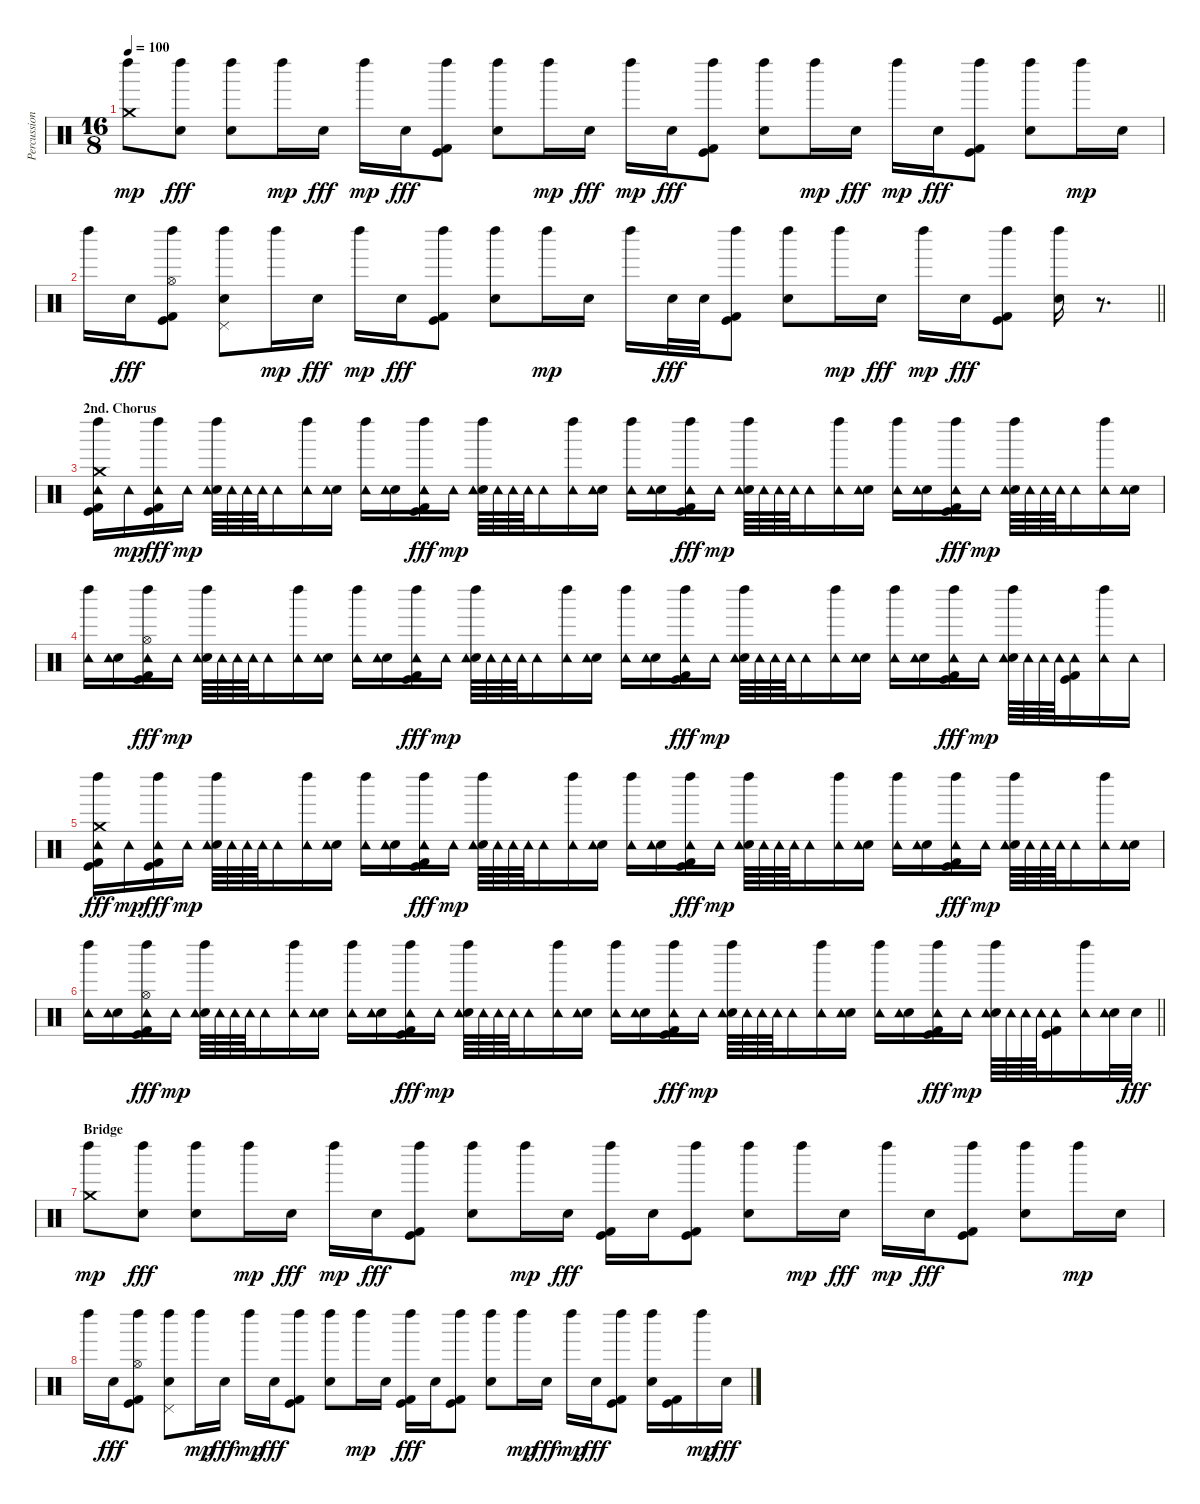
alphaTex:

\track ("Percussion" "Percussion") {instrument percussion}
\staff {score}
\articulation defaults
\ts (16 8)
\tempo 100
\clef neutral
\ks c
("Crash medium (hit)" "Left Maraca (hit)").8{dy mp} ("Left Maraca (hit)" "Snare (hit) 2").8{dy fff} ("Left Maraca (hit)" "Snare (hit) 2").8 "Left Maraca (hit)".16{dy mp} "Snare (hit) 2".16{dy fff} "Left Maraca (hit)".16{dy mp} "Snare (hit) 2".16{dy fff} ("Left Maraca (hit)" "Kick (hit)" "Kick (hit) 2").8 ("Left Maraca (hit)" "Snare (hit) 2").8 "Left Maraca (hit)".16{dy mp} "Snare (hit) 2".16{dy fff} "Left Maraca (hit)".16{dy mp} "Snare (hit) 2".16{dy fff} ("Left Maraca (hit)" "Kick (hit)" "Kick (hit) 2").8 ("Left Maraca (hit)" "Snare (hit) 2").8 "Left Maraca (hit)".16{dy mp} "Snare (hit) 2".16{dy fff} "Left Maraca (hit)".16{dy mp} "Snare (hit) 2".16{dy fff} ("Left Maraca (hit)" "Kick (hit)" "Kick (hit) 2").8 ("Left Maraca (hit)" "Snare (hit) 2").8 "Left Maraca (hit)".16{dy mp} "Snare (hit) 2".16 |
\barLineRight lightlight "Left Maraca (hit)".16 "Snare (hit) 2".16{dy fff}
("Hi-Hat (open)" "Left Maraca (hit)" "Kick (hit)" "Kick (hit) 2").8 ("Pedal Hi-Hat (hit)" "Left Maraca (hit)" "Snare (hit) 2").8 "Left Maraca (hit)".16{dy mp} "Snare (hit) 2".16{dy fff} "Left Maraca (hit)".16{dy mp} "Snare (hit) 2".16{dy fff} ("Left Maraca (hit)" "Kick (hit)" "Kick (hit) 2").8 ("Left Maraca (hit)" "Snare (hit) 2").8 "Left Maraca (hit)".16{dy mp} "Snare (hit) 2".16 "Left Maraca (hit)".16 "Snare (hit) 2".32{dy fff} "Snare (hit) 2".32 ("Left Maraca (hit)" "Kick (hit)" "Kick (hit) 2").8 ("Left Maraca (hit)" "Snare (hit) 2").8 "Left Maraca (hit)".16{dy mp} "Snare (hit) 2".16{dy fff} "Left Maraca (hit)".16{dy mp} "Snare (hit) 2".16{dy fff} ("Left Maraca (hit)" "Kick (hit)" "Kick (hit) 2").8 ("Left Maraca (hit)" "Snare (hit) 2").16 r.8{d} |
\section ("" "2nd. Chorus")
("Crash medium (hit)" "Left Maraca (hit)" "Tambourine (hit)" "Kick (hit)" "Kick (hit) 2").16 "Tambourine (hit)".16{dy mp} ("Left Maraca (hit)" "Tambourine (hit)" "Kick (hit)" "Kick (hit) 2").16{dy fff} "Tambourine (hit)".16{dy mp} ("Left Maraca (hit)" "Snare (hit) 2" "Tambourine (hit)").64 "Tambourine (hit)".64 "Tambourine (hit)".64 "Tambourine (hit)".64 "Tambourine (hit)".16 ("Left Maraca (hit)" "Tambourine (hit)").16 ("Snare (hit) 2" "Tambourine (hit)").16 ("Left Maraca (hit)" "Tambourine (hit)").16 ("Snare (hit) 2" "Tambourine (hit)").16 ("Left Maraca (hit)" "Tambourine (hit)" "Kick (hit)" "Kick (hit) 2").16{dy fff} "Tambourine (hit)".16{dy mp} ("Left Maraca (hit)" "Snare (hit) 2" "Tambourine (hit)").64 "Tambourine (hit)".64 "Tambourine (hit)".64 "Tambourine (hit)".64 "Tambourine (hit)".16 ("Left Maraca (hit)" "Tambourine (hit)").16 ("Snare (hit) 2" "Tambourine (hit)").16 ("Left Maraca (hit)" "Tambourine (hit)").16 ("Snare (hit) 2" "Tambourine (hit)").16 ("Left Maraca (hit)" "Tambourine (hit)" "Kick (hit)" "Kick (hit) 2").16{dy fff} "Tambourine (hit)".16{dy mp} ("Left Maraca (hit)" "Snare (hit) 2" "Tambourine (hit)").64 "Tambourine (hit)".64 "Tambourine (hit)".64 "Tambourine (hit)".64 "Tambourine (hit)".16 ("Left Maraca (hit)" "Tambourine (hit)").16 ("Snare (hit) 2" "Tambourine (hit)").16 ("Left Maraca (hit)" "Tambourine (hit)").16 ("Snare (hit) 2" "Tambourine (hit)").16 ("Left Maraca (hit)" "Tambourine (hit)" "Kick (hit)" "Kick (hit) 2").16{dy fff} "Tambourine (hit)".16{dy mp} ("Left Maraca (hit)" "Snare (hit) 2" "Tambourine (hit)").64 "Tambourine (hit)".64 "Tambourine (hit)".64 "Tambourine (hit)".64 "Tambourine (hit)".16 ("Left Maraca (hit)" "Tambourine (hit)").16 ("Snare (hit) 2" "Tambourine (hit)").16 |
("Left Maraca (hit)" "Tambourine (hit)").16 ("Snare (hit) 2" "Tambourine (hit)").16 ("Hi-Hat (open)" "Left Maraca (hit)" "Tambourine (hit)" "Kick (hit)" "Kick (hit) 2").16{dy fff} "Tambourine (hit)".16{dy mp} ("Left Maraca (hit)" "Snare (hit) 2" "Tambourine (hit)").64 "Tambourine (hit)".64 "Tambourine (hit)".64 "Tambourine (hit)".64 "Tambourine (hit)".16 ("Left Maraca (hit)" "Tambourine (hit)").16 ("Snare (hit) 2" "Tambourine (hit)").16 ("Left Maraca (hit)" "Tambourine (hit)").16 ("Snare (hit) 2" "Tambourine (hit)").16 ("Left Maraca (hit)" "Tambourine (hit)" "Kick (hit)" "Kick (hit) 2").16{dy fff} "Tambourine (hit)".16{dy mp} ("Left Maraca (hit)" "Snare (hit) 2" "Tambourine (hit)").64 "Tambourine (hit)".64 "Tambourine (hit)".64 "Tambourine (hit)".64 "Tambourine (hit)".16 ("Left Maraca (hit)" "Tambourine (hit)").16 ("Snare (hit) 2" "Tambourine (hit)").16 ("Left Maraca (hit)" "Tambourine (hit)").16 ("Snare (hit) 2" "Tambourine (hit)").16 ("Left Maraca (hit)" "Tambourine (hit)" "Kick (hit)" "Kick (hit) 2").16{dy fff} "Tambourine (hit)".16{dy mp} ("Left Maraca (hit)" "Snare (hit) 2" "Tambourine (hit)").64 "Tambourine (hit)".64 "Tambourine (hit)".64 "Tambourine (hit)".64 "Tambourine (hit)".16 ("Left Maraca (hit)" "Tambourine (hit)").16 ("Snare (hit) 2" "Tambourine (hit)").16 ("Left Maraca (hit)" "Tambourine (hit)").16 ("Snare (hit) 2" "Tambourine (hit)").16 ("Left Maraca (hit)" "Tambourine (hit)" "Kick (hit)" "Kick (hit) 2").16{dy fff} "Tambourine (hit)".16{dy mp} ("Left Maraca (hit)" "Snare (hit) 2" "Tambourine (hit)").64 "Tambourine (hit)".64 "Tambourine (hit)".64 "Tambourine (hit)".64 ("Tambourine (hit)" "Kick (hit)" "Kick (hit) 2").16 ("Left Maraca (hit)" "Tambourine (hit)").16 "Tambourine (hit)".16 |
("Crash medium (hit)" "Left Maraca (hit)" "Tambourine (hit)" "Kick (hit)" "Kick (hit) 2").16{dy fff} "Tambourine (hit)".16{dy mp} ("Left Maraca (hit)" "Tambourine (hit)" "Kick (hit)" "Kick (hit) 2").16{dy fff} "Tambourine (hit)".16{dy mp} ("Left Maraca (hit)" "Snare (hit) 2" "Tambourine (hit)").64 "Tambourine (hit)".64 "Tambourine (hit)".64 "Tambourine (hit)".64 "Tambourine (hit)".16 ("Left Maraca (hit)" "Tambourine (hit)").16 ("Snare (hit) 2" "Tambourine (hit)").16 ("Left Maraca (hit)" "Tambourine (hit)").16 ("Snare (hit) 2" "Tambourine (hit)").16 ("Left Maraca (hit)" "Tambourine (hit)" "Kick (hit)" "Kick (hit) 2").16{dy fff} "Tambourine (hit)".16{dy mp} ("Left Maraca (hit)" "Snare (hit) 2" "Tambourine (hit)").64 "Tambourine (hit)".64 "Tambourine (hit)".64 "Tambourine (hit)".64 "Tambourine (hit)".16 ("Left Maraca (hit)" "Tambourine (hit)").16 ("Snare (hit) 2" "Tambourine (hit)").16 ("Left Maraca (hit)" "Tambourine (hit)").16 ("Snare (hit) 2" "Tambourine (hit)").16 ("Left Maraca (hit)" "Tambourine (hit)" "Kick (hit)" "Kick (hit) 2").16{dy fff} "Tambourine (hit)".16{dy mp} ("Left Maraca (hit)" "Snare (hit) 2" "Tambourine (hit)").64 "Tambourine (hit)".64 "Tambourine (hit)".64 "Tambourine (hit)".64 "Tambourine (hit)".16 ("Left Maraca (hit)" "Tambourine (hit)").16 ("Snare (hit) 2" "Tambourine (hit)").16 ("Left Maraca (hit)" "Tambourine (hit)").16 ("Snare (hit) 2" "Tambourine (hit)").16 ("Left Maraca (hit)" "Tambourine (hit)" "Kick (hit)" "Kick (hit) 2").16{dy fff} "Tambourine (hit)".16{dy mp} ("Left Maraca (hit)" "Snare (hit) 2" "Tambourine (hit)").64 "Tambourine (hit)".64 "Tambourine (hit)".64 "Tambourine (hit)".64 "Tambourine (hit)".16 ("Left Maraca (hit)" "Tambourine (hit)").16 ("Snare (hit) 2" "Tambourine (hit)").16 |
\barLineRight lightlight
("Left Maraca (hit)" "Tambourine (hit)").16 ("Snare (hit) 2" "Tambourine (hit)").16 ("Hi-Hat (open)" "Left Maraca (hit)" "Tambourine (hit)" "Kick (hit)" "Kick (hit) 2").16{dy fff} "Tambourine (hit)".16{dy mp} ("Left Maraca (hit)" "Snare (hit) 2" "Tambourine (hit)").64 "Tambourine (hit)".64 "Tambourine (hit)".64 "Tambourine (hit)".64 "Tambourine (hit)".16 ("Left Maraca (hit)" "Tambourine (hit)").16 ("Snare (hit) 2" "Tambourine (hit)").16 ("Left Maraca (hit)" "Tambourine (hit)").16 ("Snare (hit) 2" "Tambourine (hit)").16 ("Left Maraca (hit)" "Tambourine (hit)" "Kick (hit)" "Kick (hit) 2").16{dy fff} "Tambourine (hit)".16{dy mp} ("Left Maraca (hit)" "Snare (hit) 2" "Tambourine (hit)").64 "Tambourine (hit)".64 "Tambourine (hit)".64 "Tambourine (hit)".64 "Tambourine (hit)".16 ("Left Maraca (hit)" "Tambourine (hit)").16 ("Snare (hit) 2" "Tambourine (hit)").16 ("Left Maraca (hit)" "Tambourine (hit)").16 ("Snare (hit) 2" "Tambourine (hit)").16 ("Left Maraca (hit)" "Tambourine (hit)" "Kick (hit)" "Kick (hit) 2").16{dy fff} "Tambourine (hit)".16{dy mp} ("Left Maraca (hit)" "Snare (hit) 2" "Tambourine (hit)").64 "Tambourine (hit)".64 "Tambourine (hit)".64 "Tambourine (hit)".64 "Tambourine (hit)".16 ("Left Maraca (hit)" "Tambourine (hit)").16 ("Snare (hit) 2" "Tambourine (hit)").16 ("Left Maraca (hit)" "Tambourine (hit)").16 ("Snare (hit) 2" "Tambourine (hit)").16 ("Left Maraca (hit)" "Tambourine (hit)" "Kick (hit)" "Kick (hit) 2").16{dy fff} "Tambourine (hit)".16{dy mp} ("Left Maraca (hit)" "Snare (hit) 2" "Tambourine (hit)").64 "Tambourine (hit)".64 "Tambourine (hit)".64 "Tambourine (hit)".64 ("Tambourine (hit)" "Kick (hit)" "Kick (hit) 2").16 ("Left Maraca (hit)" "Tambourine (hit)").16 ("Snare (hit) 2" "Tambourine (hit)").32 "Snare (hit) 2".32{dy fff} |
\section ("" "Bridge")
("Crash medium (hit)" "Left Maraca (hit)").8{dy mp} ("Left Maraca (hit)" "Snare (hit) 2").8{dy fff} ("Left Maraca (hit)" "Snare (hit) 2").8 "Left Maraca (hit)".16{dy mp} "Snare (hit) 2".16{dy fff} "Left Maraca (hit)".16{dy mp} "Snare (hit) 2".16{dy fff} ("Left Maraca (hit)" "Kick (hit)" "Kick (hit) 2").8 ("Left Maraca (hit)" "Snare (hit) 2").8 "Left Maraca (hit)".16{dy mp} "Snare (hit) 2".16{dy fff} ("Left Maraca (hit)" "Kick (hit)" "Kick (hit) 2").16 "Snare (hit) 2".16 ("Left Maraca (hit)" "Kick (hit)" "Kick (hit) 2").8 ("Left Maraca (hit)" "Snare (hit) 2").8 "Left Maraca (hit)".16{dy mp} "Snare (hit) 2".16{dy fff} "Left Maraca (hit)".16{dy mp} "Snare (hit) 2".16{dy fff} ("Left Maraca (hit)" "Kick (hit)" "Kick (hit) 2").8 ("Left Maraca (hit)" "Snare (hit) 2").8 "Left Maraca (hit)".16{dy mp} "Snare (hit) 2".16 |
"Left Maraca (hit)".16 "Snare (hit) 2".16{dy fff} ("Hi-Hat (open)" "Left Maraca (hit)" "Kick (hit)" "Kick (hit) 2").8 ("Pedal Hi-Hat (hit)" "Left Maraca (hit)" "Snare (hit) 2").8 "Left Maraca (hit)".16{dy mp} "Snare (hit) 2".16{dy fff} "Left Maraca (hit)".16{dy mp} "Snare (hit) 2".16{dy fff} ("Left Maraca (hit)" "Kick (hit)" "Kick (hit) 2").8 ("Left Maraca (hit)" "Snare (hit) 2").8 "Left Maraca (hit)".16{dy mp} "Snare (hit) 2".16 ("Left Maraca (hit)" "Kick (hit)" "Kick (hit) 2").16{dy fff} "Snare (hit) 2".16 ("Left Maraca (hit)" "Kick (hit)" "Kick (hit) 2").8 ("Left Maraca (hit)" "Snare (hit) 2").8 "Left Maraca (hit)".16{dy mp} "Snare (hit) 2".16{dy fff} "Left Maraca (hit)".16{dy mp} "Snare (hit) 2".16{dy fff} ("Left Maraca (hit)" "Kick (hit)" "Kick (hit) 2").8 ("Left Maraca (hit)" "Snare (hit) 2").16 ("Kick (hit)" "Kick (hit) 2").16 "Left Maraca (hit)".16{dy mp} "Snare (hit) 2".16{dy fff}
